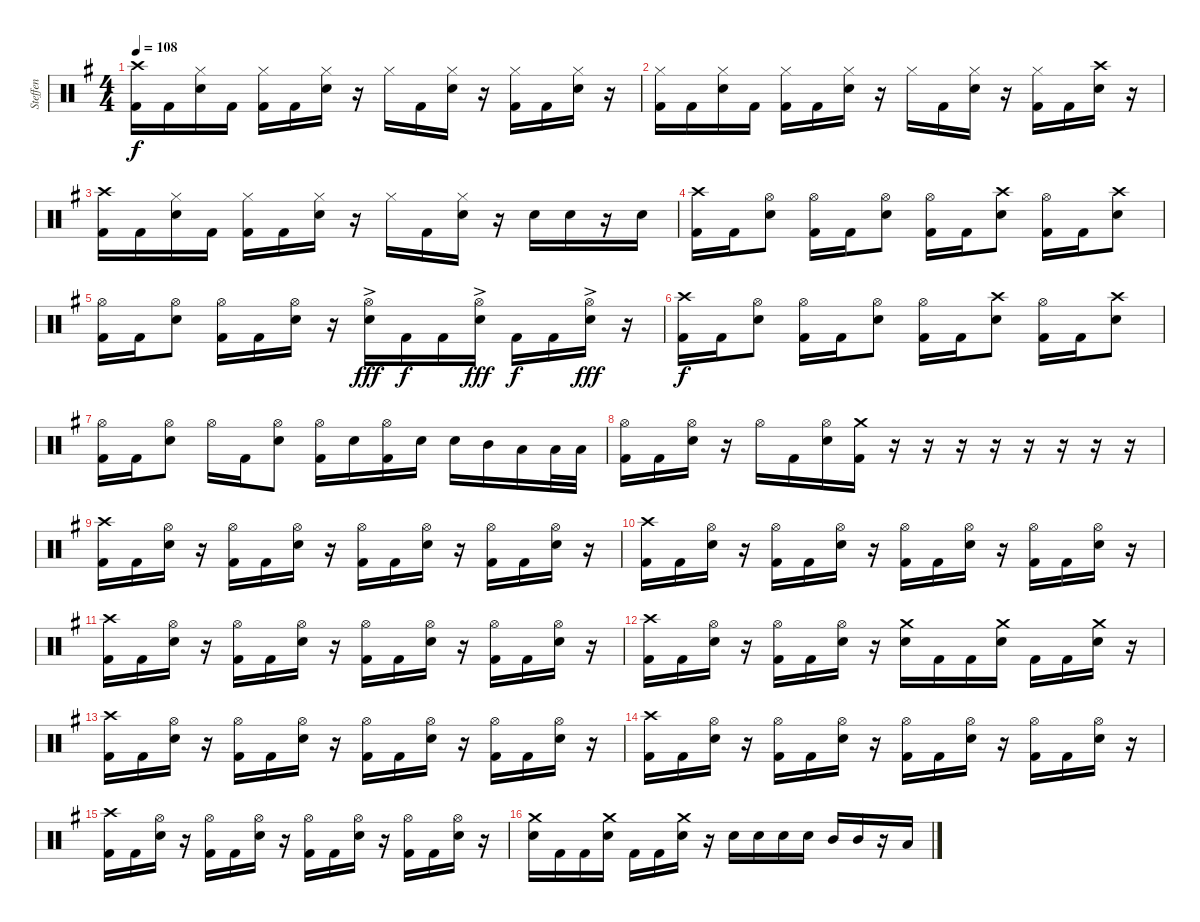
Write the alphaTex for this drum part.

\track ("Steffen" "Steffen") {instrument percussion}
\staff {score}
\articulation defaults
\ts (4 4)
\tempo 108
\clef neutral
\ks g
("Crash high (hit)" "Kick (hit) 2").16{dy f} "Kick (hit) 2".16 ("Hi-Hat (closed)" "Electric Snare (hit)").16 "Kick (hit) 2".16 ("Hi-Hat (closed)" "Kick (hit) 2").16 "Kick (hit) 2".16 ("Hi-Hat (closed)" "Electric Snare (hit)").16 r.16 "Hi-Hat (closed)".16 "Kick (hit) 2".16 ("Hi-Hat (closed)" "Electric Snare (hit)").16 r.16 ("Hi-Hat (closed)" "Kick (hit) 2").16 "Kick (hit) 2".16 ("Hi-Hat (closed)" "Electric Snare (hit)").16 r.16 |
("Hi-Hat (closed)" "Kick (hit) 2").16 "Kick (hit) 2".16 ("Hi-Hat (closed)" "Electric Snare (hit)").16 "Kick (hit) 2".16 ("Hi-Hat (closed)" "Kick (hit) 2").16 "Kick (hit) 2".16 ("Hi-Hat (closed)" "Electric Snare (hit)").16 r.16 "Hi-Hat (closed)".16 "Kick (hit) 2".16 ("Hi-Hat (closed)" "Electric Snare (hit)").16 r.16 ("Hi-Hat (closed)" "Kick (hit) 2").16 "Kick (hit) 2".16 ("Crash high (hit)" "Electric Snare (hit)").16 r.16 |
("Crash high (hit)" "Kick (hit) 2").16 "Kick (hit) 2".16 ("Hi-Hat (closed)" "Electric Snare (hit)").16 "Kick (hit) 2".16 ("Hi-Hat (closed)" "Kick (hit) 2").16 "Kick (hit) 2".16 ("Hi-Hat (closed)" "Electric Snare (hit)").16 r.16 "Hi-Hat (closed)".16 "Kick (hit) 2".16 ("Hi-Hat (closed)" "Electric Snare (hit)").16 r.16 "Electric Snare (hit)".16 "Electric Snare (hit)".16 r.16 "Electric Snare (hit)".16 |
("Crash high (hit)" "Kick (hit) 2").16 "Kick (hit) 2".16 ("Hi-Hat (open)" "Electric Snare (hit)").8 ("Hi-Hat (open)" "Kick (hit) 2").16 "Kick (hit) 2".16 ("Hi-Hat (open)" "Electric Snare (hit)").8 ("Hi-Hat (open)" "Kick (hit) 2").16 "Kick (hit) 2".16 ("Crash high (hit)" "Electric Snare (hit)").8 ("Hi-Hat (open)" "Kick (hit) 2").16 "Kick (hit) 2".16 ("Crash high (hit)" "Electric Snare (hit)").8 |
("Hi-Hat (open)" "Kick (hit) 2").16 "Kick (hit) 2".16 ("Hi-Hat (open)" "Electric Snare (hit)").8 ("Hi-Hat (open)" "Kick (hit) 2").16 "Kick (hit) 2".16 ("Hi-Hat (open)" "Electric Snare (hit)").16 r.16 ("Hi-Hat (open)"{ac} "Electric Snare (hit)").16{dy fff} "Kick (hit) 2".16{dy f} "Kick (hit) 2".16 ("Hi-Hat (open)"{ac} "Electric Snare (hit)").16{dy fff} "Kick (hit) 2".16{dy f} "Kick (hit) 2".16 ("Hi-Hat (open)"{ac} "Electric Snare (hit)").16{dy fff} r.16 |
("Crash high (hit)" "Kick (hit) 2").16{dy f} "Kick (hit) 2".16 ("Hi-Hat (open)" "Electric Snare (hit)").8 ("Hi-Hat (open)" "Kick (hit) 2").16 "Kick (hit) 2".16 ("Hi-Hat (open)" "Electric Snare (hit)").8 ("Hi-Hat (open)" "Kick (hit) 2").16 "Kick (hit) 2".16 ("Crash high (hit)" "Electric Snare (hit)").8 ("Hi-Hat (open)" "Kick (hit) 2").16 "Kick (hit) 2".16 ("Crash high (hit)" "Electric Snare (hit)").8 |
("Hi-Hat (open)" "Kick (hit) 2").16 "Kick (hit) 2".16 ("Hi-Hat (open)" "Electric Snare (hit)").8 "Hi-Hat (open)".16 "Kick (hit) 2".16 ("Hi-Hat (open)" "Electric Snare (hit)").8 ("Hi-Hat (open)" "Kick (hit) 2").16 "Electric Snare (hit)".16 ("Hi-Hat (open)" "Kick (hit) 2").16 "Electric Snare (hit)".16 "Electric Snare (hit)".16 "Mid Tom (hit)".16 "Low Tom (hit)".16 "Low Tom (hit)".32 "Low Tom (hit)".32 |
("Hi-Hat (open)" "Kick (hit) 2").16 "Kick (hit) 2".16 ("Hi-Hat (open)" "Electric Snare (hit)").16 r.16 "Hi-Hat (open)".16 "Kick (hit) 2".16 ("Hi-Hat (open)" "Electric Snare (hit)").16 ("Crash medium (hit)" "Kick (hit) 2").16 r.16 r.16 r.16 r.16 r.16 r.16 r.16 r.16 |
("Crash high (hit)" "Kick (hit) 2").16 "Kick (hit) 2".16 ("Hi-Hat (open)" "Electric Snare (hit)").16 r.16 ("Hi-Hat (open)" "Kick (hit) 2").16 "Kick (hit) 2".16 ("Hi-Hat (open)" "Electric Snare (hit)").16 r.16 ("Hi-Hat (open)" "Kick (hit) 2").16 "Kick (hit) 2".16 ("Hi-Hat (open)" "Electric Snare (hit)").16 r.16 ("Hi-Hat (open)" "Kick (hit) 2").16 "Kick (hit) 2".16 ("Hi-Hat (open)" "Electric Snare (hit)").16 r.16 |
("Crash high (hit)" "Kick (hit) 2").16 "Kick (hit) 2".16 ("Hi-Hat (open)" "Electric Snare (hit)").16 r.16 ("Hi-Hat (open)" "Kick (hit) 2").16 "Kick (hit) 2".16 ("Hi-Hat (open)" "Electric Snare (hit)").16 r.16 ("Hi-Hat (open)" "Kick (hit) 2").16 "Kick (hit) 2".16 ("Hi-Hat (open)" "Electric Snare (hit)").16 r.16 ("Hi-Hat (open)" "Kick (hit) 2").16 "Kick (hit) 2".16 ("Hi-Hat (open)" "Electric Snare (hit)").16 r.16 |
("Crash high (hit)" "Kick (hit) 2").16 "Kick (hit) 2".16 ("Hi-Hat (open)" "Electric Snare (hit)").16 r.16 ("Hi-Hat (open)" "Kick (hit) 2").16 "Kick (hit) 2".16 ("Hi-Hat (open)" "Electric Snare (hit)").16 r.16 ("Hi-Hat (open)" "Kick (hit) 2").16 "Kick (hit) 2".16 ("Hi-Hat (open)" "Electric Snare (hit)").16 r.16 ("Hi-Hat (open)" "Kick (hit) 2").16 "Kick (hit) 2".16 ("Hi-Hat (open)" "Electric Snare (hit)").16 r.16 |
("Crash high (hit)" "Kick (hit) 2").16 "Kick (hit) 2".16 ("Hi-Hat (open)" "Electric Snare (hit)").16 r.16 ("Hi-Hat (open)" "Kick (hit) 2").16 "Kick (hit) 2".16 ("Hi-Hat (open)" "Electric Snare (hit)").16 r.16 ("Crash medium (hit)" "Electric Snare (hit)").16 "Kick (hit) 2".16 "Kick (hit) 2".16 ("Crash medium (hit)" "Electric Snare (hit)").16 "Kick (hit) 2".16 "Kick (hit) 2".16 ("Crash medium (hit)" "Electric Snare (hit)").16 r.16 |
("Crash high (hit)" "Kick (hit) 2").16 "Kick (hit) 2".16 ("Hi-Hat (open)" "Electric Snare (hit)").16 r.16 ("Hi-Hat (open)" "Kick (hit) 2").16 "Kick (hit) 2".16 ("Hi-Hat (open)" "Electric Snare (hit)").16 r.16 ("Hi-Hat (open)" "Kick (hit) 2").16 "Kick (hit) 2".16 ("Hi-Hat (open)" "Electric Snare (hit)").16 r.16 ("Hi-Hat (open)" "Kick (hit) 2").16 "Kick (hit) 2".16 ("Hi-Hat (open)" "Electric Snare (hit)").16 r.16 |
("Crash high (hit)" "Kick (hit) 2").16 "Kick (hit) 2".16 ("Hi-Hat (open)" "Electric Snare (hit)").16 r.16 ("Hi-Hat (open)" "Kick (hit) 2").16 "Kick (hit) 2".16 ("Hi-Hat (open)" "Electric Snare (hit)").16 r.16 ("Hi-Hat (open)" "Kick (hit) 2").16 "Kick (hit) 2".16 ("Hi-Hat (open)" "Electric Snare (hit)").16 r.16 ("Hi-Hat (open)" "Kick (hit) 2").16 "Kick (hit) 2".16 ("Hi-Hat (open)" "Electric Snare (hit)").16 r.16 |
("Crash high (hit)" "Kick (hit) 2").16 "Kick (hit) 2".16 ("Hi-Hat (open)" "Electric Snare (hit)").16 r.16 ("Hi-Hat (open)" "Kick (hit) 2").16 "Kick (hit) 2".16 ("Hi-Hat (open)" "Electric Snare (hit)").16 r.16 ("Hi-Hat (open)" "Kick (hit) 2").16 "Kick (hit) 2".16 ("Hi-Hat (open)" "Electric Snare (hit)").16 r.16 ("Hi-Hat (open)" "Kick (hit) 2").16 "Kick (hit) 2".16 ("Hi-Hat (open)" "Electric Snare (hit)").16 r.16 |
("Crash medium (hit)" "Electric Snare (hit)").16 "Kick (hit) 2".16 "Kick (hit) 2".16 ("Crash medium (hit)" "Electric Snare (hit)").16 "Kick (hit) 2".16 "Kick (hit) 2".16 ("Crash medium (hit)" "Electric Snare (hit)").16 r.16 "Electric Snare (hit)".16 "Electric Snare (hit)".16 "Electric Snare (hit)".16 "Electric Snare (hit)".16 "Mid Tom (hit)".16 "Mid Tom (hit)".16 r.16 "Low Tom (hit)".16
